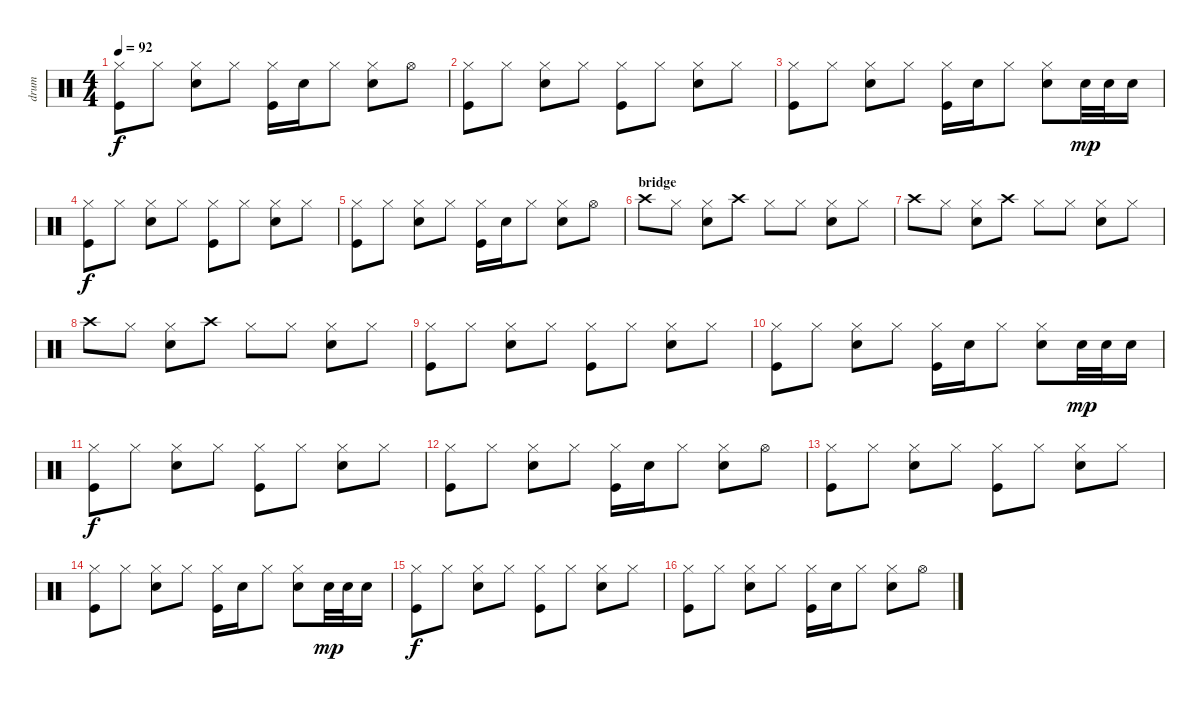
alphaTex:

\track ("drum" "drum") {instrument percussion}
\staff {score}
\articulation defaults
\ts (4 4)
\tempo 92
\clef neutral
\ks c
("Hi-Hat (closed)" "Kick (hit)").8{dy f} "Hi-Hat (closed)".8 ("Hi-Hat (closed)" "Snare (hit) 2").8 "Hi-Hat (closed)".8 ("Hi-Hat (closed)" "Kick (hit)").16 "Snare (hit) 2".16 "Hi-Hat (closed)".8 ("Hi-Hat (closed)" "Snare (hit) 2").8 "Hi-Hat (open)".8 |
("Hi-Hat (closed)" "Kick (hit)").8 "Hi-Hat (closed)".8 ("Hi-Hat (closed)" "Snare (hit) 2").8 "Hi-Hat (closed)".8 ("Hi-Hat (closed)" "Kick (hit)").8 "Hi-Hat (closed)".8 ("Hi-Hat (closed)" "Snare (hit) 2").8 "Hi-Hat (closed)".8 |
("Hi-Hat (closed)" "Kick (hit)").8 "Hi-Hat (closed)".8 ("Hi-Hat (closed)" "Snare (hit) 2").8 "Hi-Hat (closed)".8 ("Hi-Hat (closed)" "Kick (hit)").16 "Snare (hit) 2".16 "Hi-Hat (closed)".8 ("Hi-Hat (closed)" "Snare (hit) 2").8 "Snare (hit) 2".32{dy mp} "Snare (hit) 2".32 "Snare (hit) 2".16 |
("Hi-Hat (closed)" "Kick (hit)").8{dy f} "Hi-Hat (closed)".8 ("Hi-Hat (closed)" "Snare (hit) 2").8 "Hi-Hat (closed)".8 ("Hi-Hat (closed)" "Kick (hit)").8 "Hi-Hat (closed)".8 ("Hi-Hat (closed)" "Snare (hit) 2").8 "Hi-Hat (closed)".8 |
("Hi-Hat (closed)" "Kick (hit)").8 "Hi-Hat (closed)".8 ("Hi-Hat (closed)" "Snare (hit) 2").8 "Hi-Hat (closed)".8 ("Hi-Hat (closed)" "Kick (hit)").16 "Snare (hit) 2".16 "Hi-Hat (closed)".8 ("Hi-Hat (closed)" "Snare (hit) 2").8 "Hi-Hat (open)".8 |
\section ("" "bridge")
"Crash high (hit)".8 "Hi-Hat (closed)".8 ("Hi-Hat (closed)" "Snare (hit) 2").8 "Crash high (hit)".8 "Hi-Hat (closed)".8 "Hi-Hat (closed)".8 ("Hi-Hat (closed)" "Snare (hit) 2").8 "Hi-Hat (closed)".8 |
"Crash high (hit)".8 "Hi-Hat (closed)".8 ("Hi-Hat (closed)" "Snare (hit) 2").8 "Crash high (hit)".8 "Hi-Hat (closed)".8 "Hi-Hat (closed)".8 ("Hi-Hat (closed)" "Snare (hit) 2").8 "Hi-Hat (closed)".8 |
"Crash high (hit)".8 "Hi-Hat (closed)".8 ("Hi-Hat (closed)" "Snare (hit) 2").8 "Crash high (hit)".8 "Hi-Hat (closed)".8 "Hi-Hat (closed)".8 ("Hi-Hat (closed)" "Snare (hit) 2").8 "Hi-Hat (closed)".8 |
("Hi-Hat (closed)" "Kick (hit)").8 "Hi-Hat (closed)".8 ("Hi-Hat (closed)" "Snare (hit) 2").8 "Hi-Hat (closed)".8 ("Hi-Hat (closed)" "Kick (hit)").8 "Hi-Hat (closed)".8 ("Hi-Hat (closed)" "Snare (hit) 2").8 "Hi-Hat (closed)".8 |
("Hi-Hat (closed)" "Kick (hit)").8 "Hi-Hat (closed)".8 ("Hi-Hat (closed)" "Snare (hit) 2").8 "Hi-Hat (closed)".8 ("Hi-Hat (closed)" "Kick (hit)").16 "Snare (hit) 2".16 "Hi-Hat (closed)".8 ("Hi-Hat (closed)" "Snare (hit) 2").8 "Snare (hit) 2".32{dy mp} "Snare (hit) 2".32 "Snare (hit) 2".16 |
("Hi-Hat (closed)" "Kick (hit)").8{dy f} "Hi-Hat (closed)".8 ("Hi-Hat (closed)" "Snare (hit) 2").8 "Hi-Hat (closed)".8 ("Hi-Hat (closed)" "Kick (hit)").8 "Hi-Hat (closed)".8 ("Hi-Hat (closed)" "Snare (hit) 2").8 "Hi-Hat (closed)".8 |
("Hi-Hat (closed)" "Kick (hit)").8 "Hi-Hat (closed)".8 ("Hi-Hat (closed)" "Snare (hit) 2").8 "Hi-Hat (closed)".8 ("Hi-Hat (closed)" "Kick (hit)").16 "Snare (hit) 2".16 "Hi-Hat (closed)".8 ("Hi-Hat (closed)" "Snare (hit) 2").8 "Hi-Hat (open)".8 |
("Hi-Hat (closed)" "Kick (hit)").8 "Hi-Hat (closed)".8 ("Hi-Hat (closed)" "Snare (hit) 2").8 "Hi-Hat (closed)".8 ("Hi-Hat (closed)" "Kick (hit)").8 "Hi-Hat (closed)".8 ("Hi-Hat (closed)" "Snare (hit) 2").8 "Hi-Hat (closed)".8 |
("Hi-Hat (closed)" "Kick (hit)").8 "Hi-Hat (closed)".8 ("Hi-Hat (closed)" "Snare (hit) 2").8 "Hi-Hat (closed)".8 ("Hi-Hat (closed)" "Kick (hit)").16 "Snare (hit) 2".16 "Hi-Hat (closed)".8 ("Hi-Hat (closed)" "Snare (hit) 2").8 "Snare (hit) 2".32{dy mp} "Snare (hit) 2".32 "Snare (hit) 2".16 |
("Hi-Hat (closed)" "Kick (hit)").8{dy f} "Hi-Hat (closed)".8 ("Hi-Hat (closed)" "Snare (hit) 2").8 "Hi-Hat (closed)".8 ("Hi-Hat (closed)" "Kick (hit)").8 "Hi-Hat (closed)".8 ("Hi-Hat (closed)" "Snare (hit) 2").8 "Hi-Hat (closed)".8 |
("Hi-Hat (closed)" "Kick (hit)").8 "Hi-Hat (closed)".8 ("Hi-Hat (closed)" "Snare (hit) 2").8 "Hi-Hat (closed)".8 ("Hi-Hat (closed)" "Kick (hit)").16 "Snare (hit) 2".16 "Hi-Hat (closed)".8 ("Hi-Hat (closed)" "Snare (hit) 2").8 "Hi-Hat (open)".8
